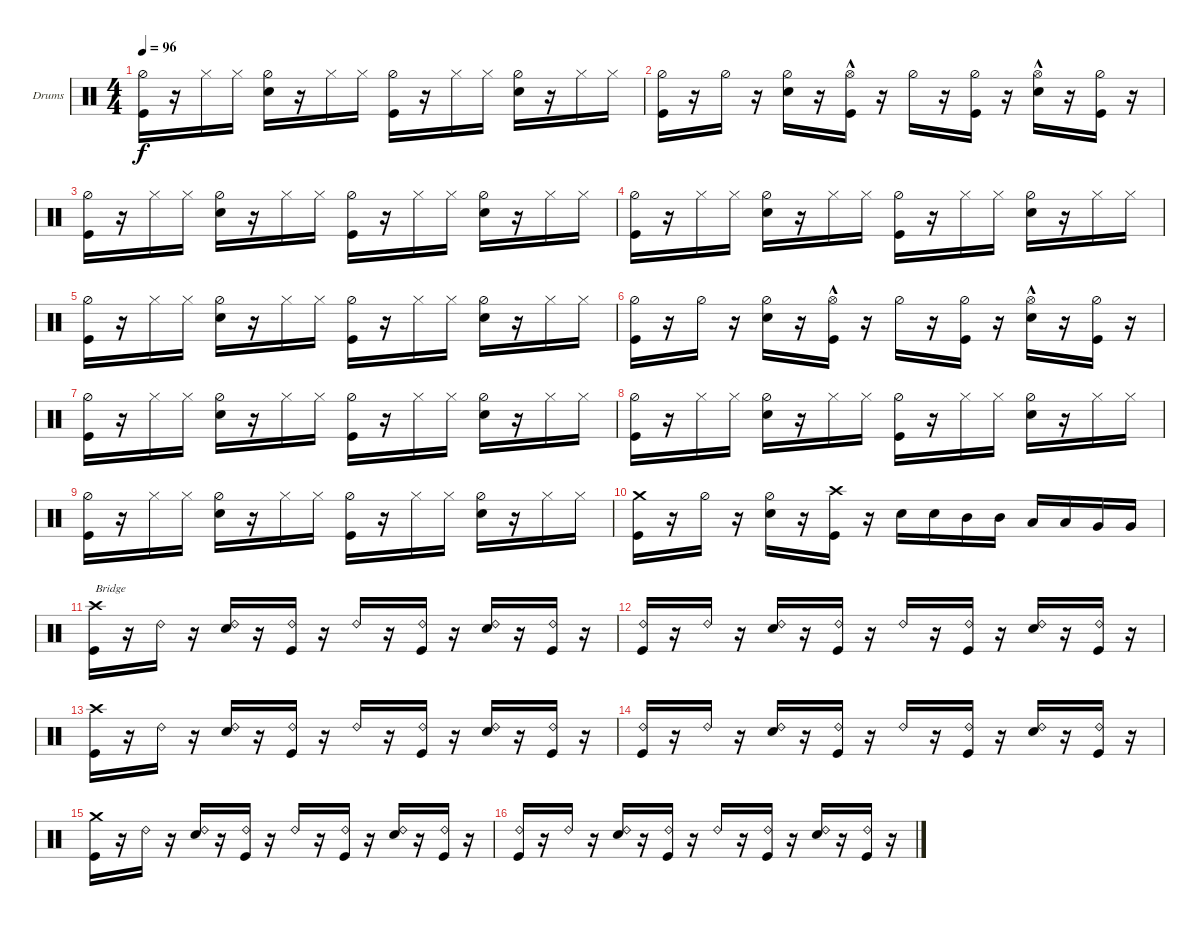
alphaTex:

\defaultSystemsLayout 4
\bracketExtendMode groupsimilarinstruments
\firstSystemTrackNameOrientation horizontal
\otherSystemsTrackNameOrientation horizontal
\track ("Stefan Schwarzmann" "Drums") {instrument percussion}
\staff {score}
\articulation defaults
\ts (4 4)
\tempo 96
\clef neutral
\ks c
("Kick (hit)" "Hi-Hat (half)").16{dy f} r.16 "Hi-Hat (closed)".16 "Hi-Hat (closed)".16 ("Snare (hit) 2" "Hi-Hat (half)").16 r.16 "Hi-Hat (closed)".16 "Hi-Hat (closed)".16 ("Kick (hit)" "Hi-Hat (half)").16 r.16 "Hi-Hat (closed)".16 "Hi-Hat (closed)".16 ("Snare (hit) 2" "Hi-Hat (half)").16 r.16 "Hi-Hat (closed)".16 "Hi-Hat (closed)".16 |
("Kick (hit)" "Hi-Hat (half)").16 r.16 "Hi-Hat (half)".16 r.16 ("Snare (hit) 2" "Hi-Hat (half)").16 r.16 ("Kick (hit)" "Hi-Hat (open)"{hac}).16 r.16 "Hi-Hat (half)".16 r.16 ("Hi-Hat (half)" "Kick (hit)").16 r.16 ("Snare (hit) 2" "Hi-Hat (open)"{hac}).16 r.16 ("Hi-Hat (half)" "Kick (hit)").16 r.16 |
("Kick (hit)" "Hi-Hat (half)").16 r.16 "Hi-Hat (closed)".16 "Hi-Hat (closed)".16 ("Snare (hit) 2" "Hi-Hat (half)").16 r.16 "Hi-Hat (closed)".16 "Hi-Hat (closed)".16 ("Kick (hit)" "Hi-Hat (half)").16 r.16 "Hi-Hat (closed)".16 "Hi-Hat (closed)".16 ("Snare (hit) 2" "Hi-Hat (half)").16 r.16 "Hi-Hat (closed)".16 "Hi-Hat (closed)".16 |
("Kick (hit)" "Hi-Hat (half)").16 r.16 "Hi-Hat (closed)".16 "Hi-Hat (closed)".16 ("Snare (hit) 2" "Hi-Hat (half)").16 r.16 "Hi-Hat (closed)".16 "Hi-Hat (closed)".16 ("Kick (hit)" "Hi-Hat (half)").16 r.16 "Hi-Hat (closed)".16 "Hi-Hat (closed)".16 ("Snare (hit) 2" "Hi-Hat (half)").16 r.16 "Hi-Hat (closed)".16 "Hi-Hat (closed)".16 |
("Kick (hit)" "Hi-Hat (half)").16 r.16 "Hi-Hat (closed)".16 "Hi-Hat (closed)".16 ("Snare (hit) 2" "Hi-Hat (half)").16 r.16 "Hi-Hat (closed)".16 "Hi-Hat (closed)".16 ("Kick (hit)" "Hi-Hat (half)").16 r.16 "Hi-Hat (closed)".16 "Hi-Hat (closed)".16 ("Snare (hit) 2" "Hi-Hat (half)").16 r.16 "Hi-Hat (closed)".16 "Hi-Hat (closed)".16 |
("Kick (hit)" "Hi-Hat (half)").16 r.16 "Hi-Hat (half)".16 r.16 ("Snare (hit) 2" "Hi-Hat (half)").16 r.16 ("Kick (hit)" "Hi-Hat (open)"{hac}).16 r.16 "Hi-Hat (half)".16 r.16 ("Hi-Hat (half)" "Kick (hit)").16 r.16 ("Snare (hit) 2" "Hi-Hat (open)"{hac}).16 r.16 ("Hi-Hat (half)" "Kick (hit)").16 r.16 |
("Kick (hit)" "Hi-Hat (half)").16 r.16 "Hi-Hat (closed)".16 "Hi-Hat (closed)".16 ("Snare (hit) 2" "Hi-Hat (half)").16 r.16 "Hi-Hat (closed)".16 "Hi-Hat (closed)".16 ("Kick (hit)" "Hi-Hat (half)").16 r.16 "Hi-Hat (closed)".16 "Hi-Hat (closed)".16 ("Snare (hit) 2" "Hi-Hat (half)").16 r.16 "Hi-Hat (closed)".16 "Hi-Hat (closed)".16 |
("Kick (hit)" "Hi-Hat (half)").16 r.16 "Hi-Hat (closed)".16 "Hi-Hat (closed)".16 ("Snare (hit) 2" "Hi-Hat (half)").16 r.16 "Hi-Hat (closed)".16 "Hi-Hat (closed)".16 ("Kick (hit)" "Hi-Hat (half)").16 r.16 "Hi-Hat (closed)".16 "Hi-Hat (closed)".16 ("Snare (hit) 2" "Hi-Hat (half)").16 r.16 "Hi-Hat (closed)".16 "Hi-Hat (closed)".16 |
("Kick (hit)" "Hi-Hat (half)").16 r.16 "Hi-Hat (closed)".16 "Hi-Hat (closed)".16 ("Snare (hit) 2" "Hi-Hat (half)").16 r.16 "Hi-Hat (closed)".16 "Hi-Hat (closed)".16 ("Kick (hit)" "Hi-Hat (half)").16 r.16 "Hi-Hat (closed)".16 "Hi-Hat (closed)".16 ("Snare (hit) 2" "Hi-Hat (half)").16 r.16 "Hi-Hat (closed)".16 "Hi-Hat (closed)".16 |
("Kick (hit)" "Crash medium (hit)").16 r.16 "Hi-Hat (half)".16 r.16 ("Snare (hit) 2" "Hi-Hat (half)").16 r.16 ("Kick (hit)" "Crash high (hit)").16 r.16 "Snare (hit) 2".16 "Snare (hit) 2".16 "Mid Tom (hit)".16 "Mid Tom (hit)".16 "Low Tom (hit)".16 "Low Tom (hit)".16 "Very Low Tom (hit)".16 "Very Low Tom (hit)".16 |
("Kick (hit)" "Crash high (hit)").16{txt "Bridge"} r.16 "Ride (bell) 2".16 r.16 ("Snare (hit) 2" "Ride (bell) 2").16 r.16 ("Kick (hit)" "Ride (bell) 2").16 r.16 "Ride (bell) 2".16 r.16 ("Kick (hit)" "Ride (bell) 2").16 r.16 ("Snare (hit) 2" "Ride (bell) 2").16 r.16 ("Kick (hit)" "Ride (bell) 2").16 r.16 |
("Kick (hit)" "Ride (bell) 2").16 r.16 "Ride (bell) 2".16 r.16 ("Snare (hit) 2" "Ride (bell) 2").16 r.16 ("Kick (hit)" "Ride (bell) 2").16 r.16 "Ride (bell) 2".16 r.16 ("Kick (hit)" "Ride (bell) 2").16 r.16 ("Snare (hit) 2" "Ride (bell) 2").16 r.16 ("Kick (hit)" "Ride (bell) 2").16 r.16 |
("Kick (hit)" "Crash high (hit)").16 r.16 "Ride (bell) 2".16 r.16 ("Snare (hit) 2" "Ride (bell) 2").16 r.16 ("Kick (hit)" "Ride (bell) 2").16 r.16 "Ride (bell) 2".16 r.16 ("Kick (hit)" "Ride (bell) 2").16 r.16 ("Snare (hit) 2" "Ride (bell) 2").16 r.16 ("Kick (hit)" "Ride (bell) 2").16 r.16 |
("Kick (hit)" "Ride (bell) 2").16 r.16 "Ride (bell) 2".16 r.16 ("Snare (hit) 2" "Ride (bell) 2").16 r.16 ("Kick (hit)" "Ride (bell) 2").16 r.16 "Ride (bell) 2".16 r.16 ("Kick (hit)" "Ride (bell) 2").16 r.16 ("Snare (hit) 2" "Ride (bell) 2").16 r.16 ("Kick (hit)" "Ride (bell) 2").16 r.16 |
("Kick (hit)" "Crash medium (hit)").16 r.16 "Ride (bell) 2".16 r.16 ("Snare (hit) 2" "Ride (bell) 2").16 r.16 ("Kick (hit)" "Ride (bell) 2").16 r.16 "Ride (bell) 2".16 r.16 ("Kick (hit)" "Ride (bell) 2").16 r.16 ("Snare (hit) 2" "Ride (bell) 2").16 r.16 ("Kick (hit)" "Ride (bell) 2").16 r.16 |
("Kick (hit)" "Ride (bell) 2").16 r.16 "Ride (bell) 2".16 r.16 ("Snare (hit) 2" "Ride (bell) 2").16 r.16 ("Kick (hit)" "Ride (bell) 2").16 r.16 "Ride (bell) 2".16 r.16 ("Kick (hit)" "Ride (bell) 2").16 r.16 ("Snare (hit) 2" "Ride (bell) 2").16 r.16 ("Kick (hit)" "Ride (bell) 2").16 r.16
